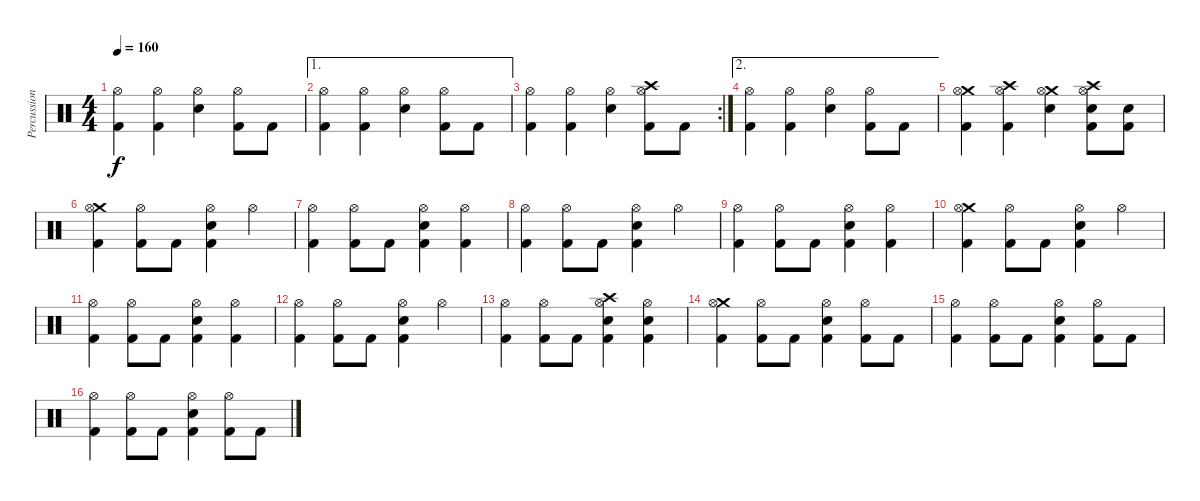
\track ("Percussion" "Percussion") {instrument percussion}
\staff {score}
\articulation defaults
\ts (4 4)
\tempo 160
\clef neutral
\ks c
("Hi-Hat (open)" "Kick (hit) 2").4{dy f} ("Hi-Hat (open)" "Kick (hit) 2").4 ("Hi-Hat (open)" "Electric Snare (hit)").4 ("Hi-Hat (open)" "Kick (hit) 2").8 "Kick (hit) 2".8 |
\ae 1
("Hi-Hat (open)" "Kick (hit) 2").4 ("Hi-Hat (open)" "Kick (hit) 2").4 ("Hi-Hat (open)" "Electric Snare (hit)").4 ("Hi-Hat (open)" "Kick (hit) 2").8 "Kick (hit) 2".8 |
\rc 2
("Hi-Hat (open)" "Kick (hit) 2").4 ("Hi-Hat (open)" "Kick (hit) 2").4 ("Hi-Hat (open)" "Electric Snare (hit)").4 ("Crash high (hit)" "Hi-Hat (open)" "Kick (hit) 2").8 "Kick (hit) 2".8 |
\ae 2
("Hi-Hat (open)" "Kick (hit) 2").4 ("Hi-Hat (open)" "Kick (hit) 2").4 ("Hi-Hat (open)" "Electric Snare (hit)").4 ("Hi-Hat (open)" "Kick (hit) 2").8 "Kick (hit) 2".8 |
("Crash medium (hit)" "Hi-Hat (open)" "Kick (hit) 2").4 ("Crash high (hit)" "Hi-Hat (open)" "Kick (hit) 2").4 ("Crash medium (hit)" "Hi-Hat (open)" "Electric Snare (hit)").4 ("Crash high (hit)" "Hi-Hat (open)" "Electric Snare (hit)" "Kick (hit) 2").8 ("Electric Snare (hit)" "Kick (hit) 2").8 |
("Crash medium (hit)" "Hi-Hat (open)" "Kick (hit) 2").4 ("Hi-Hat (open)" "Kick (hit) 2").8 "Kick (hit) 2".8 ("Hi-Hat (open)" "Electric Snare (hit)" "Kick (hit) 2").4 "Hi-Hat (open)".4 |
("Hi-Hat (open)" "Kick (hit) 2").4 ("Hi-Hat (open)" "Kick (hit) 2").8 "Kick (hit) 2".8 ("Hi-Hat (open)" "Electric Snare (hit)" "Kick (hit) 2").4 ("Hi-Hat (open)" "Kick (hit) 2").4 |
("Hi-Hat (open)" "Kick (hit) 2").4 ("Hi-Hat (open)" "Kick (hit) 2").8 "Kick (hit) 2".8 ("Hi-Hat (open)" "Electric Snare (hit)" "Kick (hit) 2").4 "Hi-Hat (open)".4 |
("Hi-Hat (open)" "Kick (hit) 2").4 ("Hi-Hat (open)" "Kick (hit) 2").8 "Kick (hit) 2".8 ("Hi-Hat (open)" "Electric Snare (hit)" "Kick (hit) 2").4 ("Hi-Hat (open)" "Kick (hit) 2").4 |
("Crash medium (hit)" "Hi-Hat (open)" "Kick (hit) 2").4 ("Hi-Hat (open)" "Kick (hit) 2").8 "Kick (hit) 2".8 ("Hi-Hat (open)" "Electric Snare (hit)" "Kick (hit) 2").4 "Hi-Hat (open)".4 |
("Hi-Hat (open)" "Kick (hit) 2").4 ("Hi-Hat (open)" "Kick (hit) 2").8 "Kick (hit) 2".8 ("Hi-Hat (open)" "Electric Snare (hit)" "Kick (hit) 2").4 ("Hi-Hat (open)" "Kick (hit) 2").4 |
("Hi-Hat (open)" "Kick (hit) 2").4 ("Hi-Hat (open)" "Kick (hit) 2").8 "Kick (hit) 2".8 ("Hi-Hat (open)" "Electric Snare (hit)" "Kick (hit) 2").4 "Hi-Hat (open)".4 |
("Hi-Hat (open)" "Kick (hit) 2").4 ("Hi-Hat (open)" "Kick (hit) 2").8 "Kick (hit) 2".8 ("Crash high (hit)" "Hi-Hat (open)" "Electric Snare (hit)" "Kick (hit) 2").4 ("Hi-Hat (open)" "Electric Snare (hit)" "Kick (hit) 2").4 |
("Crash medium (hit)" "Hi-Hat (open)" "Kick (hit) 2").4 ("Hi-Hat (open)" "Kick (hit) 2").8 "Kick (hit) 2".8 ("Hi-Hat (open)" "Electric Snare (hit)" "Kick (hit) 2").4 ("Hi-Hat (open)" "Kick (hit) 2").8 "Kick (hit) 2".8 |
("Hi-Hat (open)" "Kick (hit) 2").4 ("Hi-Hat (open)" "Kick (hit) 2").8 "Kick (hit) 2".8 ("Hi-Hat (open)" "Electric Snare (hit)" "Kick (hit) 2").4 ("Hi-Hat (open)" "Kick (hit) 2").8 "Kick (hit) 2".8 |
("Hi-Hat (open)" "Kick (hit) 2").4 ("Hi-Hat (open)" "Kick (hit) 2").8 "Kick (hit) 2".8 ("Hi-Hat (open)" "Electric Snare (hit)" "Kick (hit) 2").4 ("Hi-Hat (open)" "Kick (hit) 2").8 "Kick (hit) 2".8
